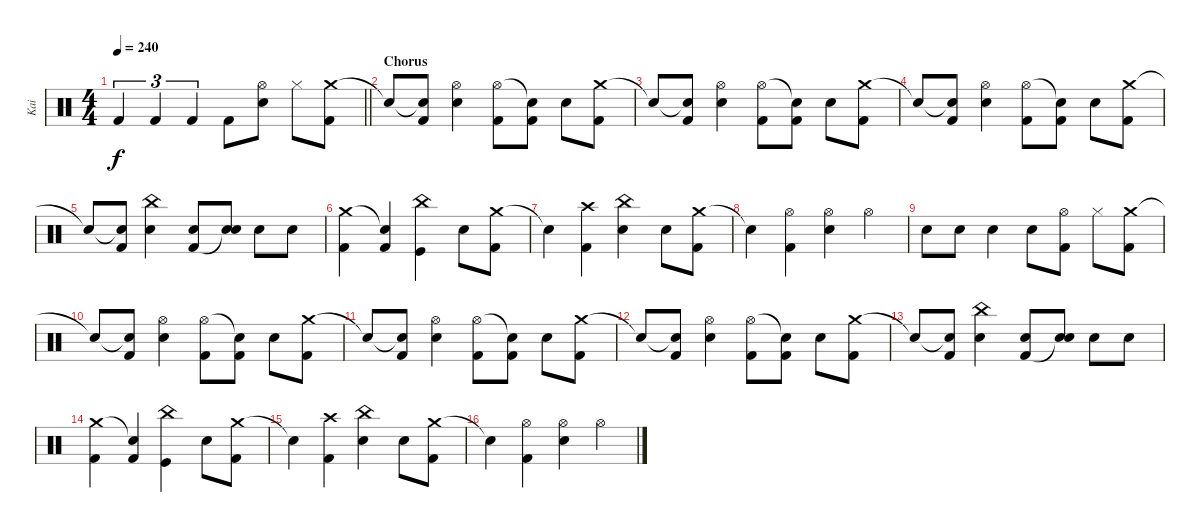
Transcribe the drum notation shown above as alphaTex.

\track ("Kai" "Kai") {instrument percussion}
\staff {score}
\articulation defaults
\ts (4 4)
\tempo 240
\clef neutral
\barLineRight lightlight
\ks c "Kick (hit) 2".4{tu (3 2) dy f} "Kick (hit) 2".4{tu (3 2)} "Kick (hit) 2".4{tu (3 2)} "Kick (hit) 2".8
("Hi-Hat (open)" "Snare (hit)"{t}).8 "Hi-Hat (closed)".8 ("Crash medium (hit)" "Kick (hit) 2").8 |
\section ("" "Chorus")
"Snare (hit)"{t}.8 ("Snare (hit)"{t} "Kick (hit) 2").8 ("Hi-Hat (open)" "Snare (hit) 2").4 ("Hi-Hat (open)" "Kick (hit) 2").8 ("Snare (hit)"{t} "Kick (hit) 2").8 "Snare (hit) 2".8 ("Crash medium (hit)" "Kick (hit) 2").8 |
"Snare (hit)"{t}.8 ("Snare (hit)"{t} "Kick (hit) 2").8 ("Hi-Hat (open)" "Snare (hit) 2").4 ("Hi-Hat (open)" "Kick (hit) 2").8 ("Snare (hit)"{t} "Kick (hit) 2").8 "Snare (hit) 2".8 ("Crash medium (hit)" "Kick (hit) 2").8 |
"Snare (hit)"{t}.8 ("Snare (hit)"{t} "Kick (hit) 2").8 ("Hi-Hat (open)" "Snare (hit) 2").4 ("Hi-Hat (open)" "Kick (hit) 2").8 ("Snare (hit)"{t} "Kick (hit) 2").8 "Snare (hit) 2".8 ("Crash medium (hit)" "Kick (hit) 2").8 |
"Snare (hit)"{t}.8 ("Snare (hit)"{t} "Kick (hit) 2").8 ("China (hit)" "Snare (hit) 2").4 ("Snare (hit) 2" "Kick (hit) 2").8 ("Snare (hit) 2" "Snare (hit)"{t}).8 "Snare (hit) 2".8 "Snare (hit) 2".8 |
("Crash medium (hit)" "Kick (hit) 2").4 ("Snare (hit)"{t} "Kick (hit) 2").4 ("China (hit)" "Kick (hit)").4 "Snare (hit) 2".8 ("Crash medium (hit)" "Kick (hit) 2").8 |
"Snare (hit)"{t}.4 ("Crash high (hit)" "Kick (hit) 2").4 ("China (hit)" "Snare (hit) 2").4 "Snare (hit) 2".8 ("Crash medium (hit)" "Kick (hit) 2").8 |
"Snare (hit)"{t}.4 ("Hi-Hat (open)" "Kick (hit) 2").4 ("Hi-Hat (open)" "Snare (hit) 2").4 "Hi-Hat (open)".4 |
"Snare (hit) 2".8 "Snare (hit) 2".8 "Snare (hit) 2".4 "Snare (hit) 2".8 ("Hi-Hat (open)" "Kick (hit) 2").8 "Hi-Hat (closed)".8 ("Crash medium (hit)" "Kick (hit) 2").8 |
"Snare (hit)"{t}.8 ("Snare (hit)"{t} "Kick (hit) 2").8 ("Hi-Hat (open)" "Snare (hit) 2").4 ("Hi-Hat (open)" "Kick (hit) 2").8 ("Snare (hit)"{t} "Kick (hit) 2").8 "Snare (hit) 2".8 ("Crash medium (hit)" "Kick (hit) 2").8 |
"Snare (hit)"{t}.8 ("Snare (hit)"{t} "Kick (hit) 2").8 ("Hi-Hat (open)" "Snare (hit) 2").4 ("Hi-Hat (open)" "Kick (hit) 2").8 ("Snare (hit)"{t} "Kick (hit) 2").8 "Snare (hit) 2".8 ("Crash medium (hit)" "Kick (hit) 2").8 |
"Snare (hit)"{t}.8 ("Snare (hit)"{t} "Kick (hit) 2").8 ("Hi-Hat (open)" "Snare (hit) 2").4 ("Hi-Hat (open)" "Kick (hit) 2").8 ("Snare (hit)"{t} "Kick (hit) 2").8 "Snare (hit) 2".8 ("Crash medium (hit)" "Kick (hit) 2").8 |
"Snare (hit)"{t}.8 ("Snare (hit)"{t} "Kick (hit) 2").8 ("China (hit)" "Snare (hit) 2").4 ("Snare (hit) 2" "Kick (hit) 2").8 ("Snare (hit) 2" "Snare (hit)"{t}).8 "Snare (hit) 2".8 "Snare (hit) 2".8 |
("Crash medium (hit)" "Kick (hit) 2").4 ("Snare (hit)"{t} "Kick (hit) 2").4 ("China (hit)" "Kick (hit)").4 "Snare (hit) 2".8 ("Crash medium (hit)" "Kick (hit) 2").8 |
"Snare (hit)"{t}.4 ("Crash high (hit)" "Kick (hit) 2").4 ("China (hit)" "Snare (hit) 2").4 "Snare (hit) 2".8 ("Crash medium (hit)" "Kick (hit) 2").8 |
"Snare (hit)"{t}.4 ("Hi-Hat (open)" "Kick (hit) 2").4 ("Hi-Hat (open)" "Snare (hit) 2").4 "Hi-Hat (open)".4
